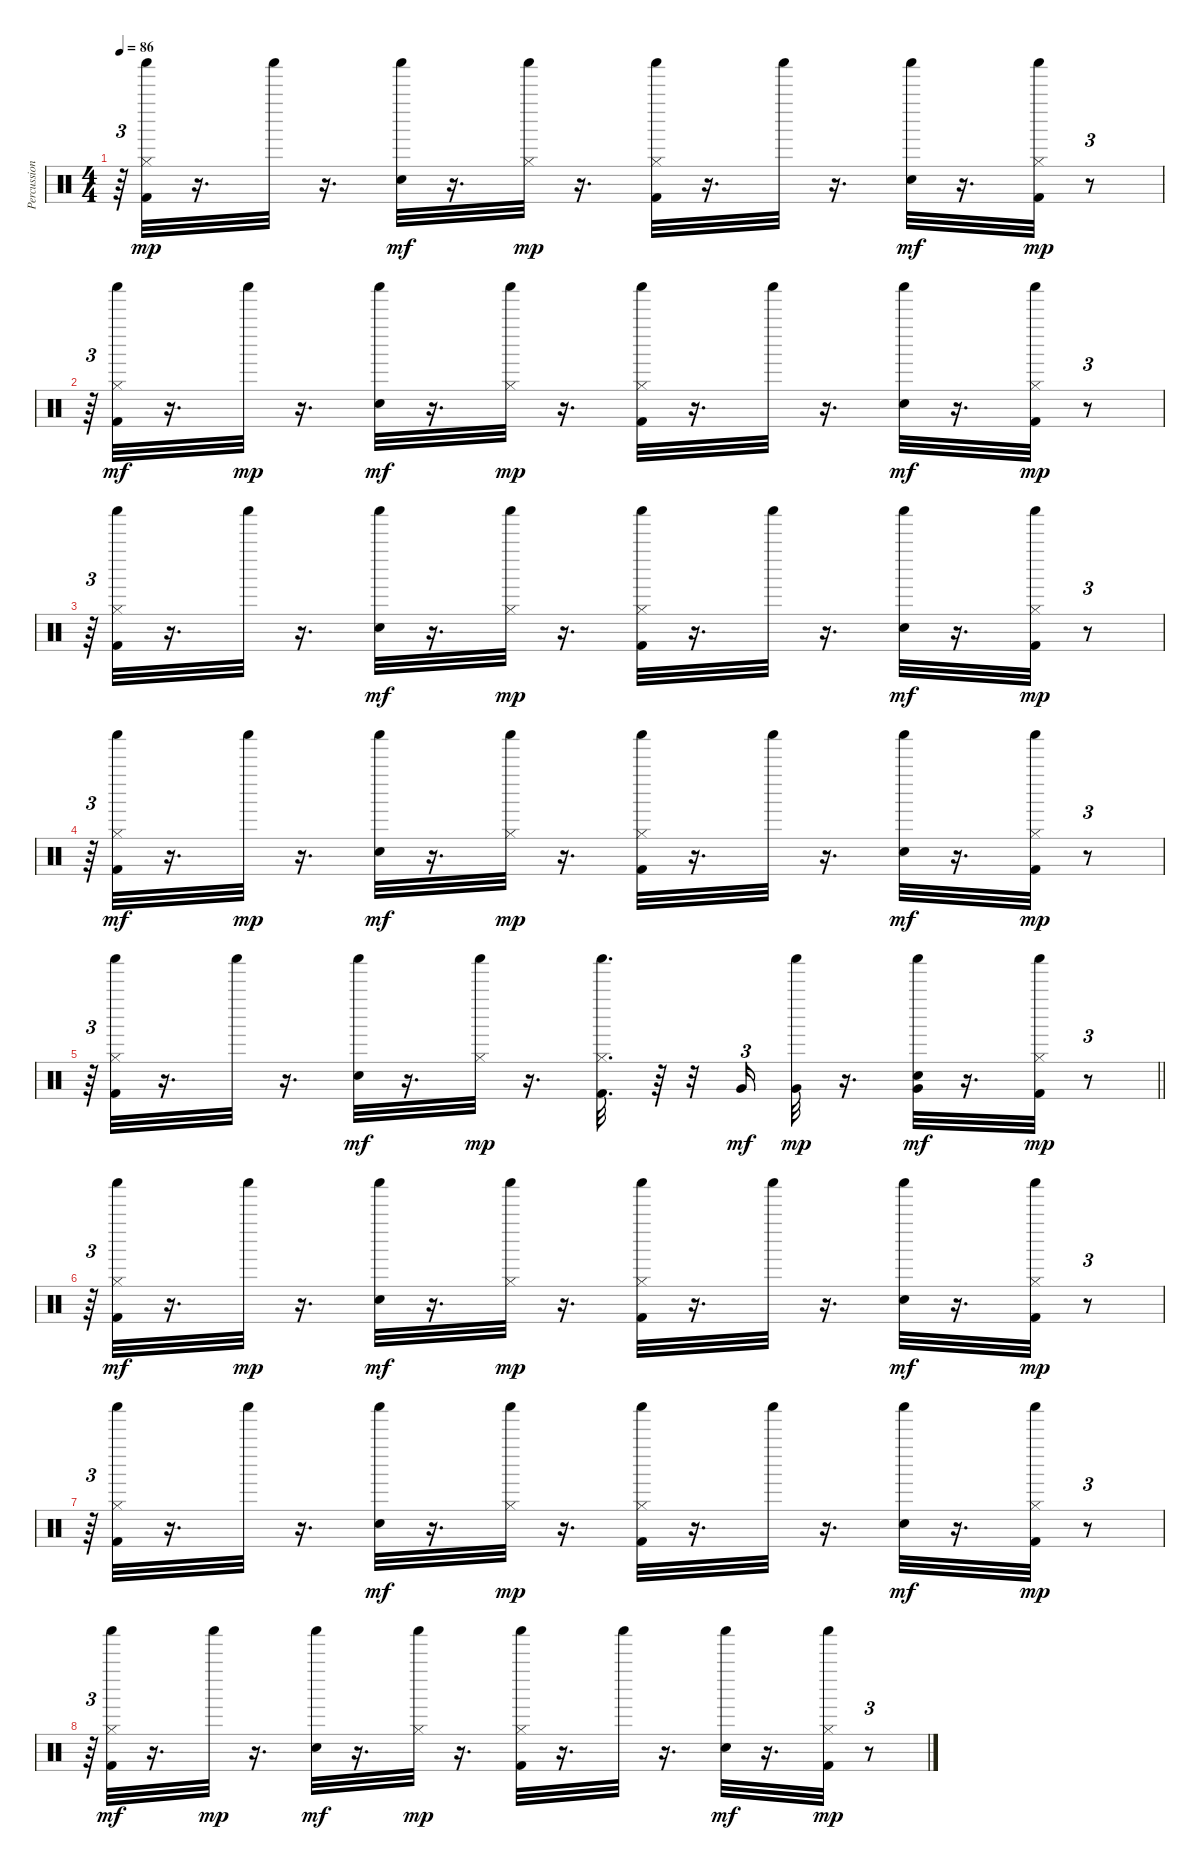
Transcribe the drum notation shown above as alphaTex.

\track ("Percussion" "Percussion") {instrument percussion}
\staff {score}
\articulation defaults
\ts (4 4)
\tempo 86
\clef neutral
\ks c
r.64{tu (3 2) dy mp} ("Kick (hit) 2" "Shaker (hit)" "Hi-Hat (closed)").32 r.16{d} "Shaker (hit)".32 r.16{d} ("Shaker (hit)" "Snare (hit) 2").32{dy mf} r.16{d} ("Shaker (hit)" "Hi-Hat (closed)").32{dy mp} r.16{d} ("Kick (hit) 2" "Shaker (hit)" "Hi-Hat (closed)").32 r.16{d} "Shaker (hit)".32 r.16{d} ("Shaker (hit)" "Snare (hit) 2").32{dy mf} r.16{d} ("Kick (hit) 2" "Shaker (hit)" "Hi-Hat (closed)").32{dy mp} r.8{tu (3 2)} |
r.64{tu (3 2)} ("Hi-Hat (closed)" "Shaker (hit)" "Kick (hit) 2").32{dy mf} r.16{d} "Shaker (hit)".32{dy mp} r.16{d} ("Shaker (hit)" "Snare (hit) 2").32{dy mf} r.16{d} ("Shaker (hit)" "Hi-Hat (closed)").32{dy mp} r.16{d} ("Kick (hit) 2" "Shaker (hit)" "Hi-Hat (closed)").32 r.16{d} "Shaker (hit)".32 r.16{d} ("Shaker (hit)" "Snare (hit) 2").32{dy mf} r.16{d} ("Kick (hit) 2" "Shaker (hit)" "Hi-Hat (closed)").32{dy mp} r.8{tu (3 2)} |
r.64{tu (3 2)} ("Kick (hit) 2" "Shaker (hit)" "Hi-Hat (closed)").32 r.16{d} "Shaker (hit)".32 r.16{d} ("Shaker (hit)" "Snare (hit) 2").32{dy mf} r.16{d} ("Shaker (hit)" "Hi-Hat (closed)").32{dy mp} r.16{d} ("Kick (hit) 2" "Shaker (hit)" "Hi-Hat (closed)").32 r.16{d} "Shaker (hit)".32 r.16{d} ("Shaker (hit)" "Snare (hit) 2").32{dy mf} r.16{d} ("Kick (hit) 2" "Shaker (hit)" "Hi-Hat (closed)").32{dy mp} r.8{tu (3 2)} |
r.64{tu (3 2)} ("Hi-Hat (closed)" "Shaker (hit)" "Kick (hit) 2").32{dy mf} r.16{d} "Shaker (hit)".32{dy mp} r.16{d} ("Shaker (hit)" "Snare (hit) 2").32{dy mf} r.16{d} ("Shaker (hit)" "Hi-Hat (closed)").32{dy mp} r.16{d} ("Kick (hit) 2" "Shaker (hit)" "Hi-Hat (closed)").32 r.16{d} "Shaker (hit)".32 r.16{d} ("Shaker (hit)" "Snare (hit) 2").32{dy mf} r.16{d} ("Kick (hit) 2" "Shaker (hit)" "Hi-Hat (closed)").32{dy mp} r.8{tu (3 2)} |
\barLineRight lightlight
r.64{tu (3 2)} ("Kick (hit) 2" "Shaker (hit)" "Hi-Hat (closed)").32 r.16{d} "Shaker (hit)".32 r.16{d} ("Shaker (hit)" "Snare (hit) 2").32{dy mf} r.16{d} ("Shaker (hit)" "Hi-Hat (closed)").32{dy mp} r.16{d} ("Kick (hit) 2" "Shaker (hit)" "Hi-Hat (closed)").32{d} r.64 r.32 "Very Low Tom (hit)".16{tu (3 2) dy mf} ("Shaker (hit)" "Very Low Tom (hit)").32{dy mp} r.16{d} ("Shaker (hit)" "Snare (hit) 2" "Very Low Tom (hit)").32{dy mf} r.16{d} ("Kick (hit) 2" "Shaker (hit)" "Hi-Hat (closed)").32{dy mp} r.8{tu (3 2)} |
r.64{tu (3 2)} ("Hi-Hat (closed)" "Shaker (hit)" "Kick (hit) 2").32{dy mf} r.16{d} "Shaker (hit)".32{dy mp} r.16{d} ("Shaker (hit)" "Snare (hit) 2").32{dy mf} r.16{d} ("Shaker (hit)" "Hi-Hat (closed)").32{dy mp} r.16{d} ("Kick (hit) 2" "Shaker (hit)" "Hi-Hat (closed)").32 r.16{d} "Shaker (hit)".32 r.16{d} ("Shaker (hit)" "Snare (hit) 2").32{dy mf} r.16{d} ("Kick (hit) 2" "Shaker (hit)" "Hi-Hat (closed)").32{dy mp} r.8{tu (3 2)} |
r.64{tu (3 2)} ("Kick (hit) 2" "Shaker (hit)" "Hi-Hat (closed)").32 r.16{d} "Shaker (hit)".32 r.16{d} ("Shaker (hit)" "Snare (hit) 2").32{dy mf} r.16{d} ("Shaker (hit)" "Hi-Hat (closed)").32{dy mp} r.16{d} ("Kick (hit) 2" "Shaker (hit)" "Hi-Hat (closed)").32 r.16{d} "Shaker (hit)".32 r.16{d} ("Shaker (hit)" "Snare (hit) 2").32{dy mf} r.16{d} ("Kick (hit) 2" "Shaker (hit)" "Hi-Hat (closed)").32{dy mp} r.8{tu (3 2)} |
r.64{tu (3 2)} ("Hi-Hat (closed)" "Shaker (hit)" "Kick (hit) 2").32{dy mf} r.16{d} "Shaker (hit)".32{dy mp} r.16{d} ("Shaker (hit)" "Snare (hit) 2").32{dy mf} r.16{d} ("Shaker (hit)" "Hi-Hat (closed)").32{dy mp} r.16{d} ("Kick (hit) 2" "Shaker (hit)" "Hi-Hat (closed)").32 r.16{d} "Shaker (hit)".32 r.16{d} ("Shaker (hit)" "Snare (hit) 2").32{dy mf} r.16{d} ("Kick (hit) 2" "Shaker (hit)" "Hi-Hat (closed)").32{dy mp} r.8{tu (3 2)}
